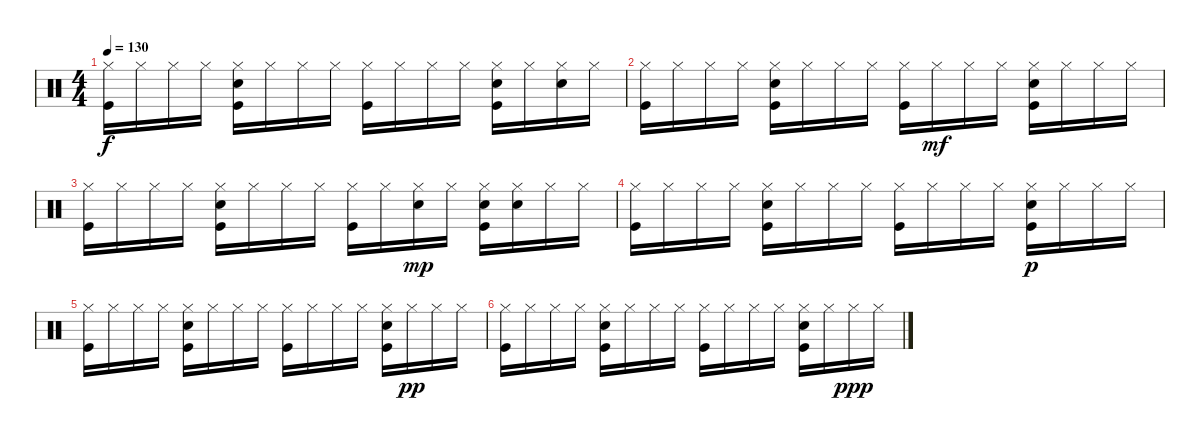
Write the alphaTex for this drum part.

\track "" {instrument percussion}
\staff {score}
\articulation defaults
\ts (4 4)
\tempo 130
\clef neutral
\ks c
("Hi-Hat (closed)" "Kick (hit)").16{dy f} "Hi-Hat (closed)".16 "Hi-Hat (closed)".16 "Hi-Hat (closed)".16 ("Snare (hit) 2" "Hi-Hat (closed)" "Kick (hit)").16 "Hi-Hat (closed)".16 "Hi-Hat (closed)".16 "Hi-Hat (closed)".16 ("Hi-Hat (closed)" "Kick (hit)").16 "Hi-Hat (closed)".16 "Hi-Hat (closed)".16 "Hi-Hat (closed)".16 ("Snare (hit) 2" "Hi-Hat (closed)" "Kick (hit)").16 "Hi-Hat (closed)".16 ("Snare (hit) 2" "Hi-Hat (closed)").16 "Hi-Hat (closed)".16 |
("Hi-Hat (closed)" "Kick (hit)").16 "Hi-Hat (closed)".16 "Hi-Hat (closed)".16 "Hi-Hat (closed)".16 ("Snare (hit) 2" "Hi-Hat (closed)" "Kick (hit)").16 "Hi-Hat (closed)".16 "Hi-Hat (closed)".16 "Hi-Hat (closed)".16 ("Hi-Hat (closed)" "Kick (hit)").16 "Hi-Hat (closed)".16{dy mf} "Hi-Hat (closed)".16 "Hi-Hat (closed)".16 ("Snare (hit) 2" "Hi-Hat (closed)" "Kick (hit)").16 "Hi-Hat (closed)".16 "Hi-Hat (closed)".16 "Hi-Hat (closed)".16 |
("Hi-Hat (closed)" "Kick (hit)").16 "Hi-Hat (closed)".16 "Hi-Hat (closed)".16 "Hi-Hat (closed)".16 ("Snare (hit) 2" "Hi-Hat (closed)" "Kick (hit)").16 "Hi-Hat (closed)".16 "Hi-Hat (closed)".16 "Hi-Hat (closed)".16 ("Hi-Hat (closed)" "Kick (hit)").16 "Hi-Hat (closed)".16 ("Snare (hit) 2" "Hi-Hat (closed)").16{dy mp} "Hi-Hat (closed)".16 ("Snare (hit) 2" "Hi-Hat (closed)" "Kick (hit)").16 ("Snare (hit) 2" "Hi-Hat (closed)").16 "Hi-Hat (closed)".16 "Hi-Hat (closed)".16 |
("Hi-Hat (closed)" "Kick (hit)").16 "Hi-Hat (closed)".16 "Hi-Hat (closed)".16 "Hi-Hat (closed)".16 ("Snare (hit) 2" "Hi-Hat (closed)" "Kick (hit)").16 "Hi-Hat (closed)".16 "Hi-Hat (closed)".16 "Hi-Hat (closed)".16 ("Hi-Hat (closed)" "Kick (hit)").16 "Hi-Hat (closed)".16 "Hi-Hat (closed)".16 "Hi-Hat (closed)".16 ("Snare (hit) 2" "Hi-Hat (closed)" "Kick (hit)").16{dy p} "Hi-Hat (closed)".16 "Hi-Hat (closed)".16 "Hi-Hat (closed)".16 |
("Hi-Hat (closed)" "Kick (hit)").16 "Hi-Hat (closed)".16 "Hi-Hat (closed)".16 "Hi-Hat (closed)".16 ("Snare (hit) 2" "Hi-Hat (closed)" "Kick (hit)").16 "Hi-Hat (closed)".16 "Hi-Hat (closed)".16 "Hi-Hat (closed)".16 ("Hi-Hat (closed)" "Kick (hit)").16 "Hi-Hat (closed)".16 "Hi-Hat (closed)".16 "Hi-Hat (closed)".16 ("Snare (hit) 2" "Hi-Hat (closed)" "Kick (hit)").16 "Hi-Hat (closed)".16{dy pp} "Hi-Hat (closed)".16 "Hi-Hat (closed)".16 |
("Hi-Hat (closed)" "Kick (hit)").16 "Hi-Hat (closed)".16 "Hi-Hat (closed)".16 "Hi-Hat (closed)".16 ("Snare (hit) 2" "Hi-Hat (closed)" "Kick (hit)").16 "Hi-Hat (closed)".16 "Hi-Hat (closed)".16 "Hi-Hat (closed)".16 ("Hi-Hat (closed)" "Kick (hit)").16 "Hi-Hat (closed)".16 "Hi-Hat (closed)".16 "Hi-Hat (closed)".16 ("Snare (hit) 2" "Hi-Hat (closed)" "Kick (hit)").16 "Hi-Hat (closed)".16 "Hi-Hat (closed)".16{dy ppp} "Hi-Hat (closed)".16
